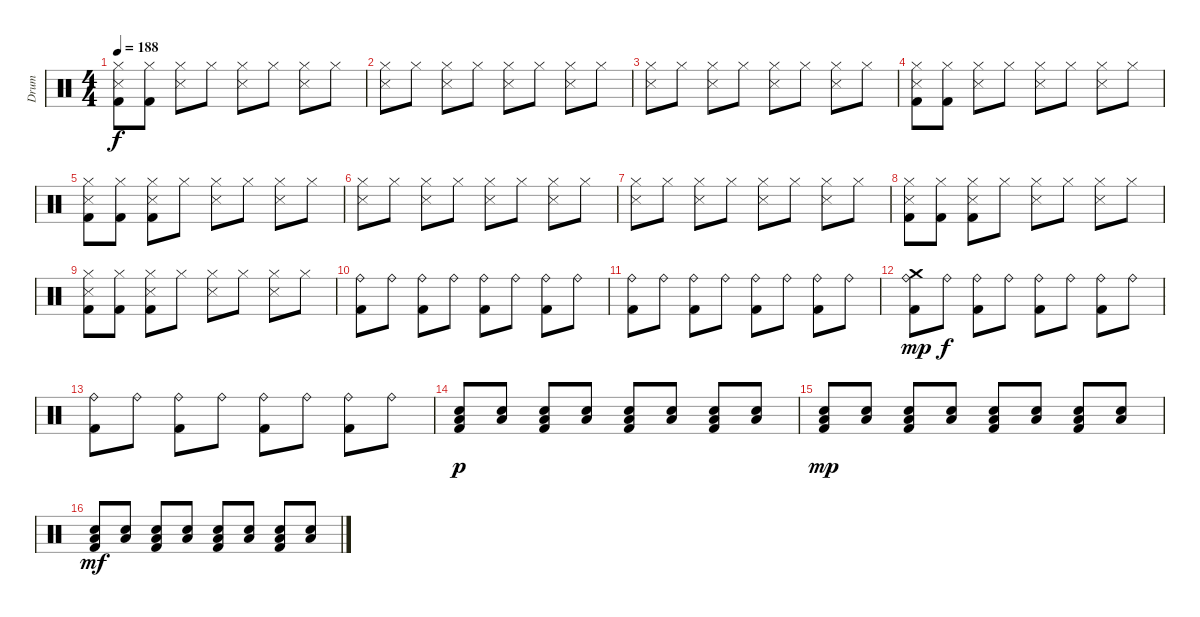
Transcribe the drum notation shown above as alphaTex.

\track ("Drum" "Drum") {instrument percussion}
\staff {score}
\articulation defaults
\ts (4 4)
\tempo 188
\clef neutral
\ks c
("Hi-Hat (closed)" "Snare (side stick) 3" "Kick (hit) 2").8{dy f} ("Hi-Hat (closed)" "Kick (hit) 2").8 ("Hi-Hat (closed)" "Snare (side stick) 3").8 "Hi-Hat (closed)".8 ("Hi-Hat (closed)" "Snare (side stick) 3").8 "Hi-Hat (closed)".8 ("Hi-Hat (closed)" "Snare (side stick) 3").8 "Hi-Hat (closed)".8 |
("Hi-Hat (closed)" "Snare (side stick) 3").8 "Hi-Hat (closed)".8 ("Hi-Hat (closed)" "Snare (side stick) 3").8 "Hi-Hat (closed)".8 ("Hi-Hat (closed)" "Snare (side stick) 3").8 "Hi-Hat (closed)".8 ("Hi-Hat (closed)" "Snare (side stick) 3").8 "Hi-Hat (closed)".8 |
("Hi-Hat (closed)" "Snare (side stick) 3").8 "Hi-Hat (closed)".8 ("Hi-Hat (closed)" "Snare (side stick) 3").8 "Hi-Hat (closed)".8 ("Hi-Hat (closed)" "Snare (side stick) 3").8 "Hi-Hat (closed)".8 ("Hi-Hat (closed)" "Snare (side stick) 3").8 "Hi-Hat (closed)".8 |
("Hi-Hat (closed)" "Snare (side stick) 3" "Kick (hit) 2").8 ("Hi-Hat (closed)" "Kick (hit) 2").8 ("Hi-Hat (closed)" "Snare (side stick) 3").8 "Hi-Hat (closed)".8 ("Hi-Hat (closed)" "Snare (side stick) 3").8 "Hi-Hat (closed)".8 ("Hi-Hat (closed)" "Snare (side stick) 3").8 "Hi-Hat (closed)".8 |
("Hi-Hat (closed)" "Snare (side stick) 3" "Kick (hit) 2").8 ("Hi-Hat (closed)" "Kick (hit) 2").8 ("Hi-Hat (closed)" "Snare (side stick) 3" "Kick (hit) 2").8 "Hi-Hat (closed)".8 ("Hi-Hat (closed)" "Snare (side stick) 3").8 "Hi-Hat (closed)".8 ("Hi-Hat (closed)" "Snare (side stick) 3").8 "Hi-Hat (closed)".8 |
("Hi-Hat (closed)" "Snare (side stick) 3").8 "Hi-Hat (closed)".8 ("Hi-Hat (closed)" "Snare (side stick) 3").8 "Hi-Hat (closed)".8 ("Hi-Hat (closed)" "Snare (side stick) 3").8 "Hi-Hat (closed)".8 ("Hi-Hat (closed)" "Snare (side stick) 3").8 "Hi-Hat (closed)".8 |
("Hi-Hat (closed)" "Snare (side stick) 3").8 "Hi-Hat (closed)".8 ("Hi-Hat (closed)" "Snare (side stick) 3").8 "Hi-Hat (closed)".8 ("Hi-Hat (closed)" "Snare (side stick) 3").8 "Hi-Hat (closed)".8 ("Hi-Hat (closed)" "Snare (side stick) 3").8 "Hi-Hat (closed)".8 |
("Hi-Hat (closed)" "Snare (side stick) 3" "Kick (hit) 2").8 ("Hi-Hat (closed)" "Kick (hit) 2").8 ("Hi-Hat (closed)" "Snare (side stick) 3" "Kick (hit) 2").8 "Hi-Hat (closed)".8 ("Hi-Hat (closed)" "Snare (side stick) 3").8 "Hi-Hat (closed)".8 ("Hi-Hat (closed)" "Snare (side stick) 3").8 "Hi-Hat (closed)".8 |
("Hi-Hat (closed)" "Snare (side stick) 3" "Kick (hit) 2").8 ("Hi-Hat (closed)" "Kick (hit) 2").8 ("Hi-Hat (closed)" "Snare (side stick) 3" "Kick (hit) 2").8 "Hi-Hat (closed)".8 ("Hi-Hat (closed)" "Snare (side stick) 3").8 "Hi-Hat (closed)".8 ("Hi-Hat (closed)" "Snare (side stick) 3").8 "Hi-Hat (closed)".8 |
("Ride (bell)" "Kick (hit) 2").8 "Ride (bell)".8 ("Ride (bell)" "Kick (hit) 2").8 "Ride (bell)".8 ("Ride (bell)" "Kick (hit) 2").8 "Ride (bell)".8 ("Ride (bell)" "Kick (hit) 2").8 "Ride (bell)".8 |
("Ride (bell)" "Kick (hit) 2").8 "Ride (bell)".8 ("Ride (bell)" "Kick (hit) 2").8 "Ride (bell)".8 ("Ride (bell)" "Kick (hit) 2").8 "Ride (bell)".8 ("Ride (bell)" "Kick (hit) 2").8 "Ride (bell)".8 |
("Ride (bell)" "Crash medium (hit)" "Kick (hit) 2").8{dy mp} "Ride (bell)".8{dy f} ("Ride (bell)" "Kick (hit) 2").8 "Ride (bell)".8 ("Ride (bell)" "Kick (hit) 2").8 "Ride (bell)".8 ("Ride (bell)" "Kick (hit) 2").8 "Ride (bell)".8 |
("Ride (bell)" "Kick (hit) 2").8 "Ride (bell)".8 ("Ride (bell)" "Kick (hit) 2").8 "Ride (bell)".8 ("Ride (bell)" "Kick (hit) 2").8 "Ride (bell)".8 ("Ride (bell)" "Kick (hit) 2").8 "Ride (bell)".8 |
("Low Tom (hit)" "Snare (hit) 2" "Kick (hit) 2").8{dy p} ("Low Tom (hit)" "Snare (hit) 2").8 ("Low Tom (hit)" "Snare (hit) 2" "Kick (hit) 2").8 ("Low Tom (hit)" "Snare (hit) 2").8 ("Low Tom (hit)" "Snare (hit) 2" "Kick (hit) 2").8 ("Low Tom (hit)" "Snare (hit) 2").8 ("Low Tom (hit)" "Snare (hit) 2" "Kick (hit) 2").8 ("Low Tom (hit)" "Snare (hit) 2").8 |
("Low Tom (hit)" "Snare (hit) 2" "Kick (hit) 2").8{dy mp} ("Low Tom (hit)" "Snare (hit) 2").8 ("Low Tom (hit)" "Snare (hit) 2" "Kick (hit) 2").8 ("Low Tom (hit)" "Snare (hit) 2").8 ("Low Tom (hit)" "Snare (hit) 2" "Kick (hit) 2").8 ("Low Tom (hit)" "Snare (hit) 2").8 ("Low Tom (hit)" "Snare (hit) 2" "Kick (hit) 2").8 ("Low Tom (hit)" "Snare (hit) 2").8 |
("Low Tom (hit)" "Snare (hit) 2" "Kick (hit) 2").8{dy mf} ("Low Tom (hit)" "Snare (hit) 2").8 ("Low Tom (hit)" "Snare (hit) 2" "Kick (hit) 2").8 ("Low Tom (hit)" "Snare (hit) 2").8 ("Low Tom (hit)" "Snare (hit) 2" "Kick (hit) 2").8 ("Low Tom (hit)" "Snare (hit) 2").8 ("Low Tom (hit)" "Snare (hit) 2" "Kick (hit) 2").8 ("Low Tom (hit)" "Snare (hit) 2").8
